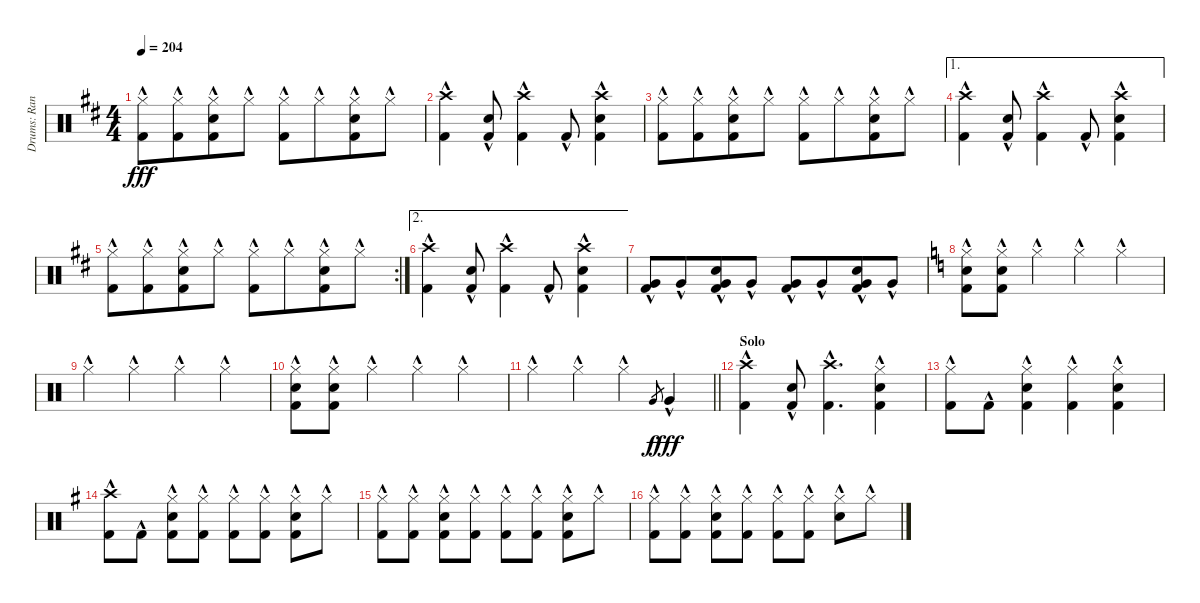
\track ("Drums: Randy" "Drums: Ran") {instrument percussion}
\staff {score}
\articulation defaults
\ts (4 4)
\tempo 204
\clef neutral
\ks d
("Hi-Hat (closed)"{hac} "Kick (hit) 2"{hac}).8{dy fff} ("Hi-Hat (closed)"{hac} "Kick (hit) 2"{hac}).8{beam merge} ("Hi-Hat (closed)"{hac} "Snare (hit) 2"{hac} "Kick (hit) 2"{hac}).8 "Hi-Hat (closed)"{hac}.8 ("Hi-Hat (closed)"{hac} "Kick (hit) 2"{hac}).8 "Hi-Hat (closed)"{hac}.8{beam merge} ("Hi-Hat (closed)"{hac} "Snare (hit) 2"{hac} "Kick (hit) 2"{hac}).8 "Hi-Hat (closed)"{hac}.8 |
("Crash high (hit)"{hac} "Kick (hit) 2"{hac}).4 ("Snare (hit) 2"{hac} "Kick (hit) 2"{hac}).8 ("Crash high (hit)"{hac} "Kick (hit) 2"{hac}).4 "Kick (hit) 2"{hac}.8 ("Crash high (hit)"{hac} "Snare (hit) 2"{hac} "Kick (hit) 2"{hac}).4 |
("Hi-Hat (closed)"{hac} "Kick (hit) 2"{hac}).8 ("Hi-Hat (closed)"{hac} "Kick (hit) 2"{hac}).8{beam merge} ("Hi-Hat (closed)"{hac} "Snare (hit) 2"{hac} "Kick (hit) 2"{hac}).8 "Hi-Hat (closed)"{hac}.8 ("Hi-Hat (closed)"{hac} "Kick (hit) 2"{hac}).8 "Hi-Hat (closed)"{hac}.8{beam merge} ("Hi-Hat (closed)"{hac} "Snare (hit) 2"{hac} "Kick (hit) 2"{hac}).8 "Hi-Hat (closed)"{hac}.8 |
\ae 1
("Crash high (hit)"{hac} "Kick (hit) 2"{hac}).4 ("Snare (hit) 2"{hac} "Kick (hit) 2"{hac}).8 ("Crash high (hit)"{hac} "Kick (hit) 2"{hac}).4 "Kick (hit) 2"{hac}.8 ("Crash high (hit)"{hac} "Snare (hit) 2"{hac} "Kick (hit) 2"{hac}).4 |
\rc 2
("Hi-Hat (closed)"{hac} "Kick (hit) 2"{hac}).8 ("Hi-Hat (closed)"{hac} "Kick (hit) 2"{hac}).8{beam merge} ("Hi-Hat (closed)"{hac} "Snare (hit) 2"{hac} "Kick (hit) 2"{hac}).8 "Hi-Hat (closed)"{hac}.8 ("Hi-Hat (closed)"{hac} "Kick (hit) 2"{hac}).8 "Hi-Hat (closed)"{hac}.8{beam merge} ("Hi-Hat (closed)"{hac} "Snare (hit) 2"{hac} "Kick (hit) 2"{hac}).8 "Hi-Hat (closed)"{hac}.8 |
\ae 2
("Crash high (hit)"{hac} "Kick (hit) 2"{hac}).4 ("Snare (hit) 2"{hac} "Kick (hit) 2"{hac}).8 ("Crash high (hit)"{hac} "Kick (hit) 2"{hac}).4 "Kick (hit) 2"{hac}.8 ("Crash high (hit)"{hac} "Snare (hit) 2"{hac} "Kick (hit) 2"{hac}).4 |
("Very Low Tom (hit)"{hac} "Kick (hit) 2"{hac}).8 "Very Low Tom (hit)"{hac}.8{beam merge} ("Snare (hit) 2"{hac} "Very Low Tom (hit)"{hac} "Kick (hit) 2"{hac}).8 "Very Low Tom (hit)"{hac}.8 ("Very Low Tom (hit)"{hac} "Kick (hit) 2"{hac}).8 "Very Low Tom (hit)"{hac}.8{beam merge} ("Snare (hit) 2"{hac} "Very Low Tom (hit)"{hac} "Kick (hit) 2"{hac}).8 "Very Low Tom (hit)"{hac}.8 |
\ks c
("Hi-Hat (closed)"{hac} "Snare (hit) 2"{hac} "Kick (hit) 2"{hac}).8 ("Hi-Hat (closed)"{hac} "Snare (hit) 2"{hac} "Kick (hit) 2"{hac}).8 "Hi-Hat (closed)"{hac}.4 "Hi-Hat (closed)"{hac}.4 "Hi-Hat (closed)"{hac}.4 |
"Hi-Hat (closed)"{hac}.4 "Hi-Hat (closed)"{hac}.4 "Hi-Hat (closed)"{hac}.4 "Hi-Hat (closed)"{hac}.4 |
("Hi-Hat (closed)"{hac} "Snare (hit) 2"{hac} "Kick (hit) 2"{hac}).8 ("Hi-Hat (closed)"{hac} "Snare (hit) 2"{hac} "Kick (hit) 2"{hac}).8 "Hi-Hat (closed)"{hac}.4 "Hi-Hat (closed)"{hac}.4 "Hi-Hat (closed)"{hac}.4 |
\barLineRight lightlight "Hi-Hat (closed)"{hac}.4 "Hi-Hat (closed)"{hac}.4 "Hi-Hat (closed)"{hac}.4 "Very Low Tom (hit)".8{gr dy f} "Very Low Tom (hit)"{hac}.4{dy fff}
|
\section ("" "Solo")
("Crash high (hit)"{hac} "Kick (hit) 2"{hac}).4 ("Snare (hit) 2"{hac} "Kick (hit) 2"{hac}).8 ("Crash high (hit)"{hac} "Kick (hit) 2"{hac}).4{d} ("Hi-Hat (closed)"{hac} "Snare (hit) 2"{hac} "Kick (hit) 2"{hac}).4 |
("Hi-Hat (closed)"{hac} "Kick (hit) 2"{hac}).8 "Kick (hit) 2"{hac}.8 ("Hi-Hat (closed)"{hac} "Snare (hit) 2"{hac} "Kick (hit) 2"{hac}).4 ("Hi-Hat (closed)"{hac} "Kick (hit) 2"{hac}).4 ("Hi-Hat (closed)"{hac} "Snare (hit) 2"{hac} "Kick (hit) 2"{hac}).4 |
\ks g
("Crash high (hit)"{hac} "Kick (hit) 2"{hac}).8 "Kick (hit) 2"{hac}.8 ("Hi-Hat (closed)"{hac} "Snare (hit) 2"{hac} "Kick (hit) 2"{hac}).8 ("Hi-Hat (closed)"{hac} "Kick (hit) 2"{hac}).8 ("Hi-Hat (closed)"{hac} "Kick (hit) 2"{hac}).8 ("Hi-Hat (closed)"{hac} "Kick (hit) 2"{hac}).8 ("Hi-Hat (closed)"{hac} "Snare (hit) 2"{hac} "Kick (hit) 2"{hac}).8 "Hi-Hat (closed)"{hac}.8 |
("Hi-Hat (closed)"{hac} "Kick (hit) 2"{hac}).8 ("Hi-Hat (closed)"{hac} "Kick (hit) 2"{hac}).8 ("Hi-Hat (closed)"{hac} "Snare (hit) 2"{hac} "Kick (hit) 2"{hac}).8 ("Hi-Hat (closed)"{hac} "Kick (hit) 2"{hac}).8 ("Hi-Hat (closed)"{hac} "Kick (hit) 2"{hac}).8 ("Hi-Hat (closed)"{hac} "Kick (hit) 2"{hac}).8 ("Hi-Hat (closed)"{hac} "Snare (hit) 2"{hac} "Kick (hit) 2"{hac}).8 "Hi-Hat (closed)"{hac}.8 |
("Hi-Hat (closed)"{hac} "Kick (hit) 2"{hac}).8 ("Hi-Hat (closed)"{hac} "Kick (hit) 2"{hac}).8 ("Hi-Hat (closed)"{hac} "Snare (hit) 2"{hac} "Kick (hit) 2"{hac}).8 ("Hi-Hat (closed)"{hac} "Kick (hit) 2"{hac}).8 ("Hi-Hat (closed)"{hac} "Kick (hit) 2"{hac}).8 ("Hi-Hat (closed)"{hac} "Kick (hit) 2"{hac}).8 ("Hi-Hat (closed)"{hac} "Snare (hit) 2"{hac}).8 "Hi-Hat (closed)"{hac}.8
